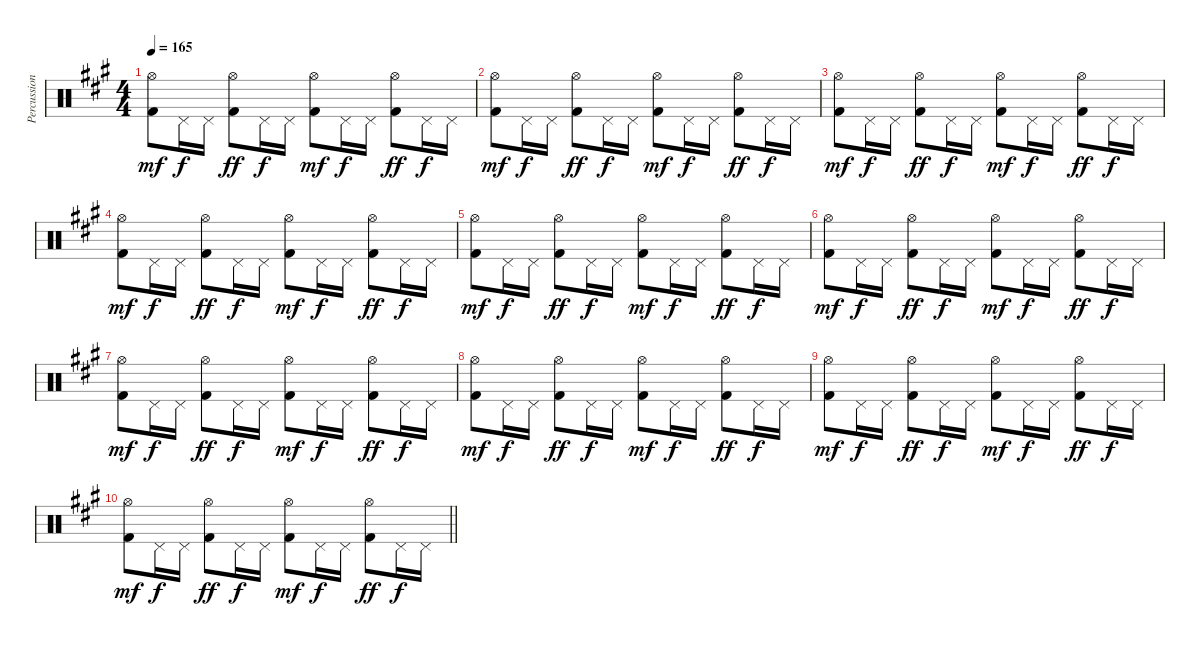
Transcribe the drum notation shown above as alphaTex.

\track ("Percussion" "Percussion") {instrument percussion}
\staff {score}
\articulation defaults
\ts (4 4)
\tempo 165
\clef neutral
\ks a
("Hi-Hat (open)" "Kick (hit) 2").8{dy mf} "Pedal Hi-Hat (hit)".16{dy f} "Pedal Hi-Hat (hit)".16 ("Hi-Hat (open)" "Kick (hit) 2").8{dy ff} "Pedal Hi-Hat (hit)".16{dy f} "Pedal Hi-Hat (hit)".16 ("Hi-Hat (open)" "Kick (hit) 2").8{dy mf} "Pedal Hi-Hat (hit)".16{dy f} "Pedal Hi-Hat (hit)".16 ("Hi-Hat (open)" "Kick (hit) 2").8{dy ff} "Pedal Hi-Hat (hit)".16{dy f} "Pedal Hi-Hat (hit)".16 |
("Hi-Hat (open)" "Kick (hit) 2").8{dy mf} "Pedal Hi-Hat (hit)".16{dy f} "Pedal Hi-Hat (hit)".16 ("Hi-Hat (open)" "Kick (hit) 2").8{dy ff} "Pedal Hi-Hat (hit)".16{dy f} "Pedal Hi-Hat (hit)".16 ("Hi-Hat (open)" "Kick (hit) 2").8{dy mf} "Pedal Hi-Hat (hit)".16{dy f} "Pedal Hi-Hat (hit)".16 ("Hi-Hat (open)" "Kick (hit) 2").8{dy ff} "Pedal Hi-Hat (hit)".16{dy f} "Pedal Hi-Hat (hit)".16 |
("Hi-Hat (open)" "Kick (hit) 2").8{dy mf} "Pedal Hi-Hat (hit)".16{dy f} "Pedal Hi-Hat (hit)".16 ("Hi-Hat (open)" "Kick (hit) 2").8{dy ff} "Pedal Hi-Hat (hit)".16{dy f} "Pedal Hi-Hat (hit)".16 ("Hi-Hat (open)" "Kick (hit) 2").8{dy mf} "Pedal Hi-Hat (hit)".16{dy f} "Pedal Hi-Hat (hit)".16 ("Hi-Hat (open)" "Kick (hit) 2").8{dy ff} "Pedal Hi-Hat (hit)".16{dy f} "Pedal Hi-Hat (hit)".16 |
("Hi-Hat (open)" "Kick (hit) 2").8{dy mf} "Pedal Hi-Hat (hit)".16{dy f} "Pedal Hi-Hat (hit)".16 ("Hi-Hat (open)" "Kick (hit) 2").8{dy ff} "Pedal Hi-Hat (hit)".16{dy f} "Pedal Hi-Hat (hit)".16 ("Hi-Hat (open)" "Kick (hit) 2").8{dy mf} "Pedal Hi-Hat (hit)".16{dy f} "Pedal Hi-Hat (hit)".16 ("Hi-Hat (open)" "Kick (hit) 2").8{dy ff} "Pedal Hi-Hat (hit)".16{dy f} "Pedal Hi-Hat (hit)".16 |
("Hi-Hat (open)" "Kick (hit) 2").8{dy mf} "Pedal Hi-Hat (hit)".16{dy f} "Pedal Hi-Hat (hit)".16 ("Hi-Hat (open)" "Kick (hit) 2").8{dy ff} "Pedal Hi-Hat (hit)".16{dy f} "Pedal Hi-Hat (hit)".16 ("Hi-Hat (open)" "Kick (hit) 2").8{dy mf} "Pedal Hi-Hat (hit)".16{dy f} "Pedal Hi-Hat (hit)".16 ("Hi-Hat (open)" "Kick (hit) 2").8{dy ff} "Pedal Hi-Hat (hit)".16{dy f} "Pedal Hi-Hat (hit)".16 |
("Hi-Hat (open)" "Kick (hit) 2").8{dy mf} "Pedal Hi-Hat (hit)".16{dy f} "Pedal Hi-Hat (hit)".16 ("Hi-Hat (open)" "Kick (hit) 2").8{dy ff} "Pedal Hi-Hat (hit)".16{dy f} "Pedal Hi-Hat (hit)".16 ("Hi-Hat (open)" "Kick (hit) 2").8{dy mf} "Pedal Hi-Hat (hit)".16{dy f} "Pedal Hi-Hat (hit)".16 ("Hi-Hat (open)" "Kick (hit) 2").8{dy ff} "Pedal Hi-Hat (hit)".16{dy f} "Pedal Hi-Hat (hit)".16 |
("Hi-Hat (open)" "Kick (hit) 2").8{dy mf} "Pedal Hi-Hat (hit)".16{dy f} "Pedal Hi-Hat (hit)".16 ("Hi-Hat (open)" "Kick (hit) 2").8{dy ff} "Pedal Hi-Hat (hit)".16{dy f} "Pedal Hi-Hat (hit)".16 ("Hi-Hat (open)" "Kick (hit) 2").8{dy mf} "Pedal Hi-Hat (hit)".16{dy f} "Pedal Hi-Hat (hit)".16 ("Hi-Hat (open)" "Kick (hit) 2").8{dy ff} "Pedal Hi-Hat (hit)".16{dy f} "Pedal Hi-Hat (hit)".16 |
("Hi-Hat (open)" "Kick (hit) 2").8{dy mf} "Pedal Hi-Hat (hit)".16{dy f} "Pedal Hi-Hat (hit)".16 ("Hi-Hat (open)" "Kick (hit) 2").8{dy ff} "Pedal Hi-Hat (hit)".16{dy f} "Pedal Hi-Hat (hit)".16 ("Hi-Hat (open)" "Kick (hit) 2").8{dy mf} "Pedal Hi-Hat (hit)".16{dy f} "Pedal Hi-Hat (hit)".16 ("Hi-Hat (open)" "Kick (hit) 2").8{dy ff} "Pedal Hi-Hat (hit)".16{dy f} "Pedal Hi-Hat (hit)".16 |
("Hi-Hat (open)" "Kick (hit) 2").8{dy mf} "Pedal Hi-Hat (hit)".16{dy f} "Pedal Hi-Hat (hit)".16 ("Hi-Hat (open)" "Kick (hit) 2").8{dy ff} "Pedal Hi-Hat (hit)".16{dy f} "Pedal Hi-Hat (hit)".16 ("Hi-Hat (open)" "Kick (hit) 2").8{dy mf} "Pedal Hi-Hat (hit)".16{dy f} "Pedal Hi-Hat (hit)".16 ("Hi-Hat (open)" "Kick (hit) 2").8{dy ff} "Pedal Hi-Hat (hit)".16{dy f} "Pedal Hi-Hat (hit)".16 |
\barLineRight lightlight
("Hi-Hat (open)" "Kick (hit) 2").8{dy mf} "Pedal Hi-Hat (hit)".16{dy f} "Pedal Hi-Hat (hit)".16 ("Hi-Hat (open)" "Kick (hit) 2").8{dy ff} "Pedal Hi-Hat (hit)".16{dy f} "Pedal Hi-Hat (hit)".16 ("Hi-Hat (open)" "Kick (hit) 2").8{dy mf} "Pedal Hi-Hat (hit)".16{dy f} "Pedal Hi-Hat (hit)".16 ("Hi-Hat (open)" "Kick (hit) 2").8{dy ff} "Pedal Hi-Hat (hit)".16{dy f} "Pedal Hi-Hat (hit)".16
